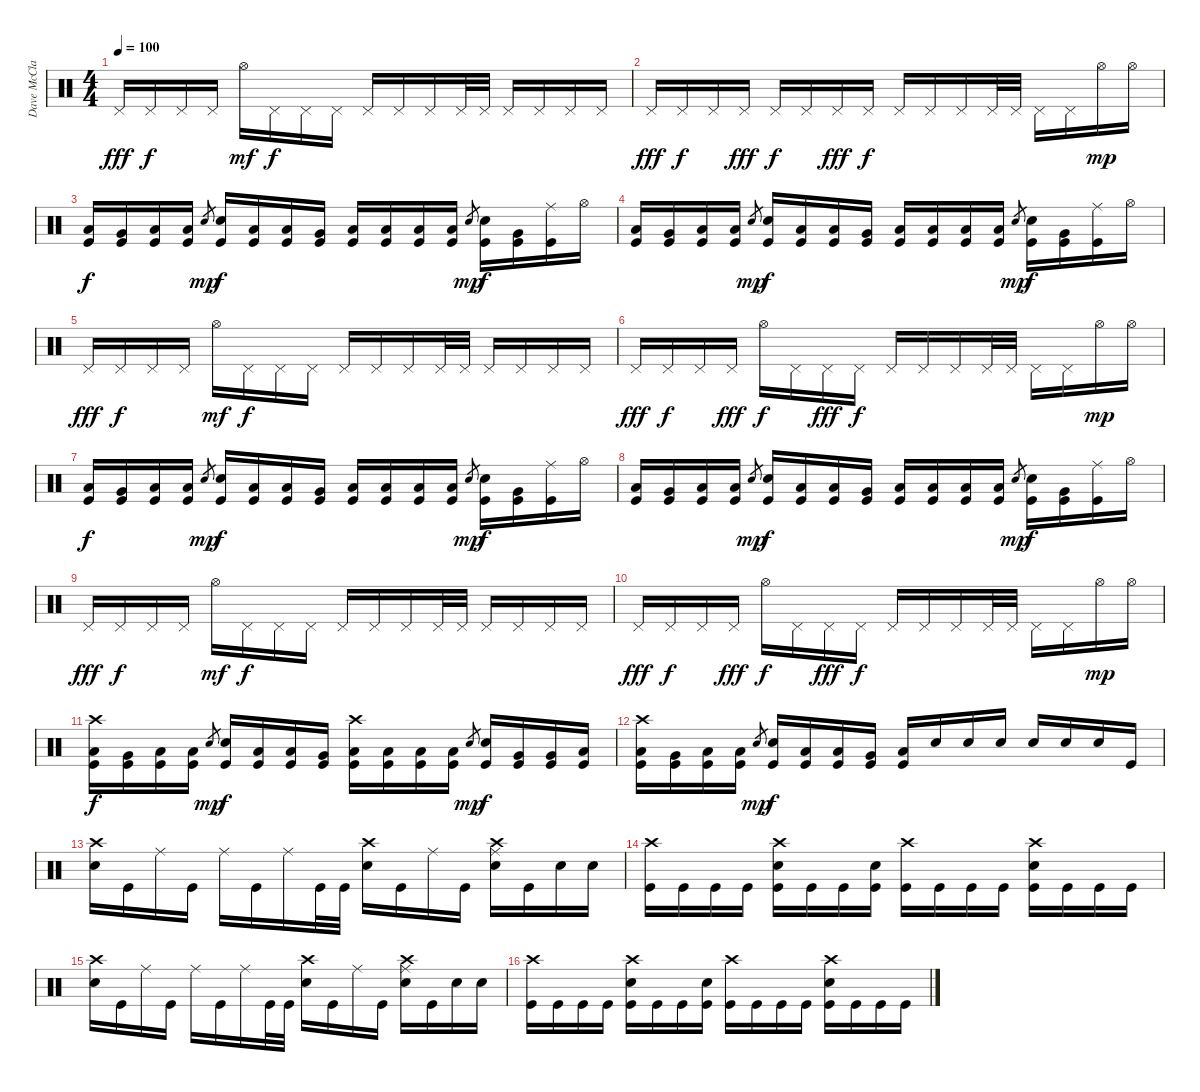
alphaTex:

\track ("Dave McClain" "Dave McCla") {instrument percussion}
\staff {score}
\articulation defaults
\ts (4 4)
\tempo 100
\clef neutral
\ks c "Pedal Hi-Hat (hit)".16{dy fff} "Pedal Hi-Hat (hit)".16{dy f} "Pedal Hi-Hat (hit)".16 "Pedal Hi-Hat (hit)".16 "Hi-Hat (open)".16{dy mf} "Pedal Hi-Hat (hit)".16{dy f} "Pedal Hi-Hat (hit)".16 "Pedal Hi-Hat (hit)".16 "Pedal Hi-Hat (hit)".16 "Pedal Hi-Hat (hit)".16 "Pedal Hi-Hat (hit)".16 "Pedal Hi-Hat (hit)".32 "Pedal Hi-Hat (hit)".32 "Pedal Hi-Hat (hit)".16 "Pedal Hi-Hat (hit)".16 "Pedal Hi-Hat (hit)".16 "Pedal Hi-Hat (hit)".16
|
"Pedal Hi-Hat (hit)".16{dy fff} "Pedal Hi-Hat (hit)".16{dy f} "Pedal Hi-Hat (hit)".16 "Pedal Hi-Hat (hit)".16{dy fff} "Pedal Hi-Hat (hit)".16{dy f} "Pedal Hi-Hat (hit)".16 "Pedal Hi-Hat (hit)".16{dy fff} "Pedal Hi-Hat (hit)".16{dy f} "Pedal Hi-Hat (hit)".16 "Pedal Hi-Hat (hit)".16 "Pedal Hi-Hat (hit)".16 "Pedal Hi-Hat (hit)".32 "Pedal Hi-Hat (hit)".32 "Pedal Hi-Hat (hit)".16 "Pedal Hi-Hat (hit)".16 "Hi-Hat (open)".16{dy mp} "Hi-Hat (open)".16 |
("Low Tom (hit)" "Kick (hit)").16{dy f} ("Very Low Tom (hit)" "Kick (hit)").16 ("Low Floor Tom (hit)" "Kick (hit)").16 ("Low Floor Tom (hit)" "Kick (hit)").16 "Snare (hit) 2".8{gr dy mp} ("Snare (hit) 2" "Kick (hit)").16{dy f} ("Low Floor Tom (hit)" "Kick (hit)").16 ("Low Tom (hit)" "Kick (hit)").16 ("Very Low Tom (hit)" "Kick (hit)").16 ("Low Floor Tom (hit)" "Kick (hit)").16 ("Low Floor Tom (hit)" "Kick (hit)").16 ("Low Floor Tom (hit)" "Kick (hit)").16 ("Low Floor Tom (hit)" "Kick (hit)").16 "Snare (hit) 2".8{gr dy mp} ("Snare (hit) 2" "Kick (hit)").16{dy f} ("Very Low Tom (hit)" "Kick (hit)").16 ("Ride (middle)" "Kick (hit)").16 "Hi-Hat (open)".16 |
("Low Tom (hit)" "Kick (hit)").16 ("Very Low Tom (hit)" "Kick (hit)").16 ("Low Floor Tom (hit)" "Kick (hit)").16 ("Low Floor Tom (hit)" "Kick (hit)").16 "Snare (hit) 2".8{gr dy mp} ("Snare (hit) 2" "Kick (hit)").16{dy f} ("Low Floor Tom (hit)" "Kick (hit)").16 ("Low Tom (hit)" "Kick (hit)").16 ("Very Low Tom (hit)" "Kick (hit)").16 ("Low Floor Tom (hit)" "Kick (hit)").16 ("Low Floor Tom (hit)" "Kick (hit)").16 ("Low Floor Tom (hit)" "Kick (hit)").16 ("Low Floor Tom (hit)" "Kick (hit)").16 "Snare (hit) 2".8{gr dy mp} ("Snare (hit) 2" "Kick (hit)").16{dy f} ("Very Low Tom (hit)" "Kick (hit)").16 ("Ride (middle)" "Kick (hit)").16 "Hi-Hat (open)".16 |
"Pedal Hi-Hat (hit)".16{dy fff} "Pedal Hi-Hat (hit)".16{dy f} "Pedal Hi-Hat (hit)".16 "Pedal Hi-Hat (hit)".16 "Hi-Hat (open)".16{dy mf} "Pedal Hi-Hat (hit)".16{dy f} "Pedal Hi-Hat (hit)".16 "Pedal Hi-Hat (hit)".16 "Pedal Hi-Hat (hit)".16 "Pedal Hi-Hat (hit)".16 "Pedal Hi-Hat (hit)".16 "Pedal Hi-Hat (hit)".32 "Pedal Hi-Hat (hit)".32 "Pedal Hi-Hat (hit)".16 "Pedal Hi-Hat (hit)".16 "Pedal Hi-Hat (hit)".16 "Pedal Hi-Hat (hit)".16 |
"Pedal Hi-Hat (hit)".16{dy fff} "Pedal Hi-Hat (hit)".16{dy f} "Pedal Hi-Hat (hit)".16 "Pedal Hi-Hat (hit)".16{dy fff} "Hi-Hat (open)".16{dy f} "Pedal Hi-Hat (hit)".16 "Pedal Hi-Hat (hit)".16{dy fff} "Pedal Hi-Hat (hit)".16{dy f} "Pedal Hi-Hat (hit)".16 "Pedal Hi-Hat (hit)".16 "Pedal Hi-Hat (hit)".16 "Pedal Hi-Hat (hit)".32 "Pedal Hi-Hat (hit)".32 "Pedal Hi-Hat (hit)".16 "Pedal Hi-Hat (hit)".16 "Hi-Hat (open)".16{dy mp} "Hi-Hat (open)".16 |
("Low Tom (hit)" "Kick (hit)").16{dy f} ("Very Low Tom (hit)" "Kick (hit)").16 ("Low Floor Tom (hit)" "Kick (hit)").16 ("Low Floor Tom (hit)" "Kick (hit)").16 "Snare (hit) 2".8{gr dy mp} ("Snare (hit) 2" "Kick (hit)").16{dy f} ("Low Floor Tom (hit)" "Kick (hit)").16 ("Low Tom (hit)" "Kick (hit)").16 ("Very Low Tom (hit)" "Kick (hit)").16 ("Low Floor Tom (hit)" "Kick (hit)").16 ("Low Floor Tom (hit)" "Kick (hit)").16 ("Low Floor Tom (hit)" "Kick (hit)").16 ("Low Floor Tom (hit)" "Kick (hit)").16 "Snare (hit) 2".8{gr dy mp} ("Snare (hit) 2" "Kick (hit)").16{dy f} ("Very Low Tom (hit)" "Kick (hit)").16 ("Ride (middle)" "Kick (hit)").16 "Hi-Hat (open)".16 |
("Low Tom (hit)" "Kick (hit)").16 ("Very Low Tom (hit)" "Kick (hit)").16 ("Low Floor Tom (hit)" "Kick (hit)").16 ("Low Floor Tom (hit)" "Kick (hit)").16 "Snare (hit) 2".8{gr dy mp} ("Snare (hit) 2" "Kick (hit)").16{dy f} ("Low Floor Tom (hit)" "Kick (hit)").16 ("Low Tom (hit)" "Kick (hit)").16 ("Very Low Tom (hit)" "Kick (hit)").16 ("Low Floor Tom (hit)" "Kick (hit)").16 ("Low Floor Tom (hit)" "Kick (hit)").16 ("Low Floor Tom (hit)" "Kick (hit)").16 ("Low Floor Tom (hit)" "Kick (hit)").16 "Snare (hit) 2".8{gr dy mp} ("Snare (hit) 2" "Kick (hit)").16{dy f} ("Very Low Tom (hit)" "Kick (hit)").16 ("Ride (middle)" "Kick (hit)").16 "Hi-Hat (open)".16 |
"Pedal Hi-Hat (hit)".16{dy fff} "Pedal Hi-Hat (hit)".16{dy f} "Pedal Hi-Hat (hit)".16 "Pedal Hi-Hat (hit)".16 "Hi-Hat (open)".16{dy mf} "Pedal Hi-Hat (hit)".16{dy f} "Pedal Hi-Hat (hit)".16 "Pedal Hi-Hat (hit)".16 "Pedal Hi-Hat (hit)".16 "Pedal Hi-Hat (hit)".16 "Pedal Hi-Hat (hit)".16 "Pedal Hi-Hat (hit)".32 "Pedal Hi-Hat (hit)".32 "Pedal Hi-Hat (hit)".16 "Pedal Hi-Hat (hit)".16 "Pedal Hi-Hat (hit)".16 "Pedal Hi-Hat (hit)".16 |
"Pedal Hi-Hat (hit)".16{dy fff} "Pedal Hi-Hat (hit)".16{dy f} "Pedal Hi-Hat (hit)".16 "Pedal Hi-Hat (hit)".16{dy fff} "Hi-Hat (open)".16{dy f} "Pedal Hi-Hat (hit)".16 "Pedal Hi-Hat (hit)".16{dy fff} "Pedal Hi-Hat (hit)".16{dy f} "Pedal Hi-Hat (hit)".16 "Pedal Hi-Hat (hit)".16 "Pedal Hi-Hat (hit)".16 "Pedal Hi-Hat (hit)".32 "Pedal Hi-Hat (hit)".32 "Pedal Hi-Hat (hit)".16 "Pedal Hi-Hat (hit)".16 "Hi-Hat (open)".16{dy mp} "Hi-Hat (open)".16 |
("Crash high (hit)" "Low Tom (hit)" "Kick (hit)").16{dy f} ("Very Low Tom (hit)" "Kick (hit)").16 ("Low Floor Tom (hit)" "Kick (hit)").16 ("Low Floor Tom (hit)" "Kick (hit)").16 "Snare (hit) 2".8{gr dy mp} ("Snare (hit) 2" "Kick (hit)").16{dy f} ("Low Floor Tom (hit)" "Kick (hit)").16 ("Low Tom (hit)" "Kick (hit)").16 ("Very Low Tom (hit)" "Kick (hit)").16 ("Crash high (hit)" "Low Floor Tom (hit)" "Kick (hit)").16 ("Low Floor Tom (hit)" "Kick (hit)").16 ("Low Floor Tom (hit)" "Kick (hit)").16 ("Low Floor Tom (hit)" "Kick (hit)").16 "Snare (hit) 2".8{gr dy mp} ("Snare (hit) 2" "Kick (hit)").16{dy f} ("Very Low Tom (hit)" "Kick (hit)").16 ("Very Low Tom (hit)" "Kick (hit)").16 ("Low Floor Tom (hit)" "Kick (hit)").16 |
("Crash high (hit)" "Low Tom (hit)" "Kick (hit)").16 ("Very Low Tom (hit)" "Kick (hit)").16 ("Low Floor Tom (hit)" "Kick (hit)").16 ("Low Floor Tom (hit)" "Kick (hit)").16 "Snare (hit) 2".8{gr dy mp} ("Snare (hit) 2" "Kick (hit)").16{dy f} ("Low Floor Tom (hit)" "Kick (hit)").16 ("Low Tom (hit)" "Kick (hit)").16 ("Very Low Tom (hit)" "Kick (hit)").16 ("Low Floor Tom (hit)" "Kick (hit)").16 "Snare (hit) 2".16 "Snare (hit) 2".16 "Snare (hit) 2".16 "Snare (hit) 2".16 "Snare (hit) 2".16 "Snare (hit) 2".16 "Kick (hit)".16 |
("Crash high (hit)" "Snare (hit) 2").16 "Kick (hit)".16 "Ride (middle)".16 "Kick (hit)".16 "Ride (middle)".16 "Kick (hit)".16 "Ride (middle)".16 "Kick (hit)".32 "Kick (hit)".32 ("Crash high (hit)" "Snare (hit) 2").16 "Kick (hit)".16 "Ride (middle)".16 "Kick (hit)".16 ("Crash high (hit)" "Ride (middle)" "Snare (hit) 2").16 "Kick (hit)".16 "Snare (hit) 2".16 "Snare (hit) 2".16 |
("Crash high (hit)" "Kick (hit)").16 "Kick (hit)".16 "Kick (hit)".16 "Kick (hit)".16 ("Crash high (hit)" "Snare (hit) 2" "Kick (hit)").16 "Kick (hit)".16 "Kick (hit)".16 ("Snare (hit) 2" "Kick (hit)").16 ("Crash high (hit)" "Kick (hit)").16 "Kick (hit)".16 "Kick (hit)".16 "Kick (hit)".16 ("Crash high (hit)" "Snare (hit) 2" "Kick (hit)").16 "Kick (hit)".16 "Kick (hit)".16 "Kick (hit)".16 |
("Crash high (hit)" "Snare (hit) 2").16 "Kick (hit)".16 "Ride (middle)".16 "Kick (hit)".16 "Ride (middle)".16 "Kick (hit)".16 "Ride (middle)".16 "Kick (hit)".32 "Kick (hit)".32 ("Crash high (hit)" "Snare (hit) 2").16 "Kick (hit)".16 "Ride (middle)".16 "Kick (hit)".16 ("Crash high (hit)" "Ride (middle)" "Snare (hit) 2").16 "Kick (hit)".16 "Snare (hit) 2".16 "Snare (hit) 2".16 |
("Crash high (hit)" "Kick (hit)").16 "Kick (hit)".16 "Kick (hit)".16 "Kick (hit)".16 ("Crash high (hit)" "Snare (hit) 2" "Kick (hit)").16 "Kick (hit)".16 "Kick (hit)".16 ("Snare (hit) 2" "Kick (hit)").16 ("Crash high (hit)" "Kick (hit)").16 "Kick (hit)".16 "Kick (hit)".16 "Kick (hit)".16 ("Crash high (hit)" "Snare (hit) 2" "Kick (hit)").16 "Kick (hit)".16 "Kick (hit)".16 "Kick (hit)".16
